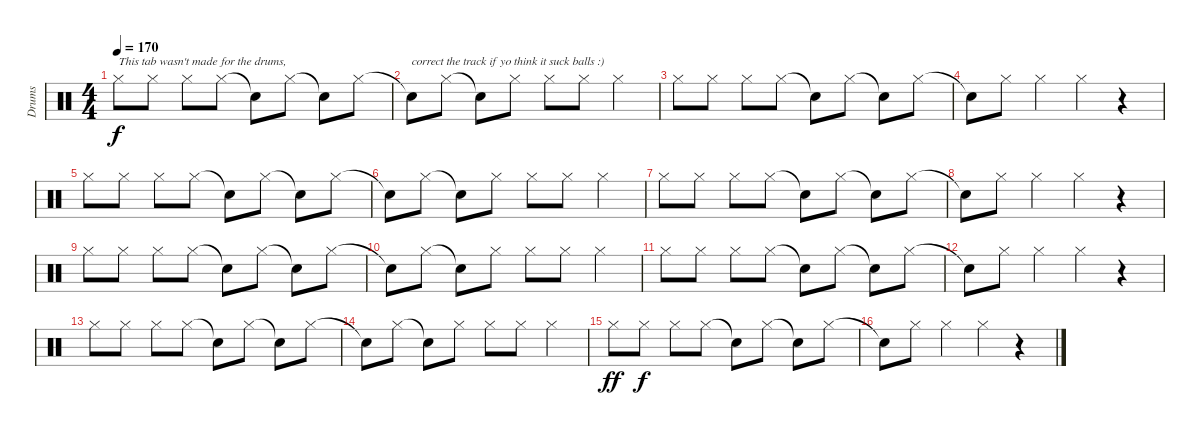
\track ("Drums" "Drums") {instrument percussion}
\staff {score}
\articulation defaults
\ts (4 4)
\tempo 170
\clef neutral
\ks c "Hi-Hat (closed)".8{txt "This tab wasn't made for the drums," dy f} "Hi-Hat (closed)".8 "Hi-Hat (closed)".8 "Hi-Hat (closed)".8 "Snare (hit)"{t}.8 "Hi-Hat (closed)".8 "Snare (hit)"{t}.8 "Hi-Hat (closed)".8
|
"Snare (hit)"{t}.8{txt "correct the track if yo think it suck balls :)"} "Hi-Hat (closed)".8 "Snare (hit)"{t}.8 "Hi-Hat (closed)".8 "Hi-Hat (closed)".8 "Hi-Hat (closed)".8 "Hi-Hat (closed)".4 |
"Hi-Hat (closed)".8 "Hi-Hat (closed)".8 "Hi-Hat (closed)".8 "Hi-Hat (closed)".8 "Snare (hit)"{t}.8 "Hi-Hat (closed)".8 "Snare (hit)"{t}.8 "Hi-Hat (closed)".8 |
"Snare (hit)"{t}.8 "Hi-Hat (closed)".8 "Hi-Hat (closed)".4 "Hi-Hat (closed)".4 r.4 |
"Hi-Hat (closed)".8 "Hi-Hat (closed)".8 "Hi-Hat (closed)".8 "Hi-Hat (closed)".8 "Snare (hit)"{t}.8 "Hi-Hat (closed)".8 "Snare (hit)"{t}.8 "Hi-Hat (closed)".8 |
"Snare (hit)"{t}.8 "Hi-Hat (closed)".8 "Snare (hit)"{t}.8 "Hi-Hat (closed)".8 "Hi-Hat (closed)".8 "Hi-Hat (closed)".8 "Hi-Hat (closed)".4 |
"Hi-Hat (closed)".8 "Hi-Hat (closed)".8 "Hi-Hat (closed)".8 "Hi-Hat (closed)".8 "Snare (hit)"{t}.8 "Hi-Hat (closed)".8 "Snare (hit)"{t}.8 "Hi-Hat (closed)".8 |
"Snare (hit)"{t}.8 "Hi-Hat (closed)".8 "Hi-Hat (closed)".4 "Hi-Hat (closed)".4 r.4 |
"Hi-Hat (closed)".8 "Hi-Hat (closed)".8 "Hi-Hat (closed)".8 "Hi-Hat (closed)".8 "Snare (hit)"{t}.8 "Hi-Hat (closed)".8 "Snare (hit)"{t}.8 "Hi-Hat (closed)".8 |
"Snare (hit)"{t}.8 "Hi-Hat (closed)".8 "Snare (hit)"{t}.8 "Hi-Hat (closed)".8 "Hi-Hat (closed)".8 "Hi-Hat (closed)".8 "Hi-Hat (closed)".4 |
"Hi-Hat (closed)".8 "Hi-Hat (closed)".8 "Hi-Hat (closed)".8 "Hi-Hat (closed)".8 "Snare (hit)"{t}.8 "Hi-Hat (closed)".8 "Snare (hit)"{t}.8 "Hi-Hat (closed)".8 |
"Snare (hit)"{t}.8 "Hi-Hat (closed)".8 "Hi-Hat (closed)".4 "Hi-Hat (closed)".4 r.4 |
"Hi-Hat (closed)".8 "Hi-Hat (closed)".8 "Hi-Hat (closed)".8 "Hi-Hat (closed)".8 "Snare (hit)"{t}.8 "Hi-Hat (closed)".8 "Snare (hit)"{t}.8 "Hi-Hat (closed)".8 |
"Snare (hit)"{t}.8 "Hi-Hat (closed)".8 "Snare (hit)"{t}.8 "Hi-Hat (closed)".8 "Hi-Hat (closed)".8 "Hi-Hat (closed)".8 "Hi-Hat (closed)".4 |
"Hi-Hat (closed)".8{dy ff} "Hi-Hat (closed)".8{dy f} "Hi-Hat (closed)".8 "Hi-Hat (closed)".8 "Snare (hit)"{t}.8 "Hi-Hat (closed)".8 "Snare (hit)"{t}.8 "Hi-Hat (closed)".8 |
"Snare (hit)"{t}.8 "Hi-Hat (closed)".8 "Hi-Hat (closed)".4 "Hi-Hat (closed)".4 r.4
